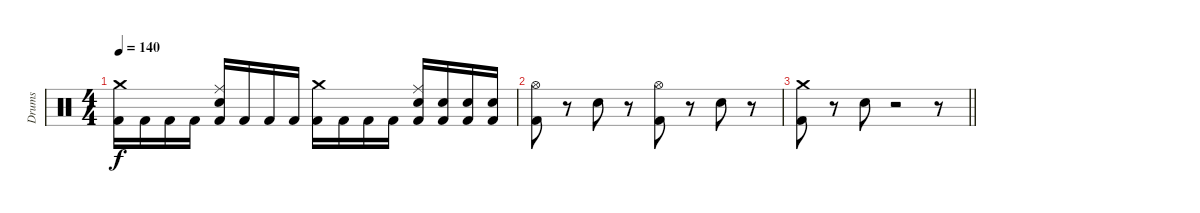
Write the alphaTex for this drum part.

\track ("Drums" "Drums") {instrument percussion}
\staff {score}
\articulation defaults
\ts (4 4)
\tempo 140
\clef neutral
\ks c
("Crash medium (hit)" "Kick (hit) 2").16{dy f} "Kick (hit) 2".16 "Kick (hit) 2".16 "Kick (hit) 2".16 ("Ride (middle)" "Snare (hit) 2" "Kick (hit) 2").16 "Kick (hit) 2".16 "Kick (hit) 2".16 "Kick (hit) 2".16 ("Crash medium (hit)" "Kick (hit) 2").16 "Kick (hit) 2".16 "Kick (hit) 2".16 "Kick (hit) 2".16 ("Ride (middle)" "Snare (hit) 2" "Kick (hit) 2").16 ("Snare (hit) 2" "Kick (hit) 2").16 ("Snare (hit) 2" "Kick (hit) 2").16 ("Snare (hit) 2" "Kick (hit) 2").16 |
("Hi-Hat (open)" "Kick (hit) 2").8 r.8 "Snare (hit) 2".8 r.8 ("Hi-Hat (open)" "Kick (hit) 2").8 r.8 "Snare (hit) 2".8 r.8 |
\barLineRight lightlight
("Crash medium (hit)" "Kick (hit) 2").8 r.8 "Snare (hit) 2".8 r.2 r.8
